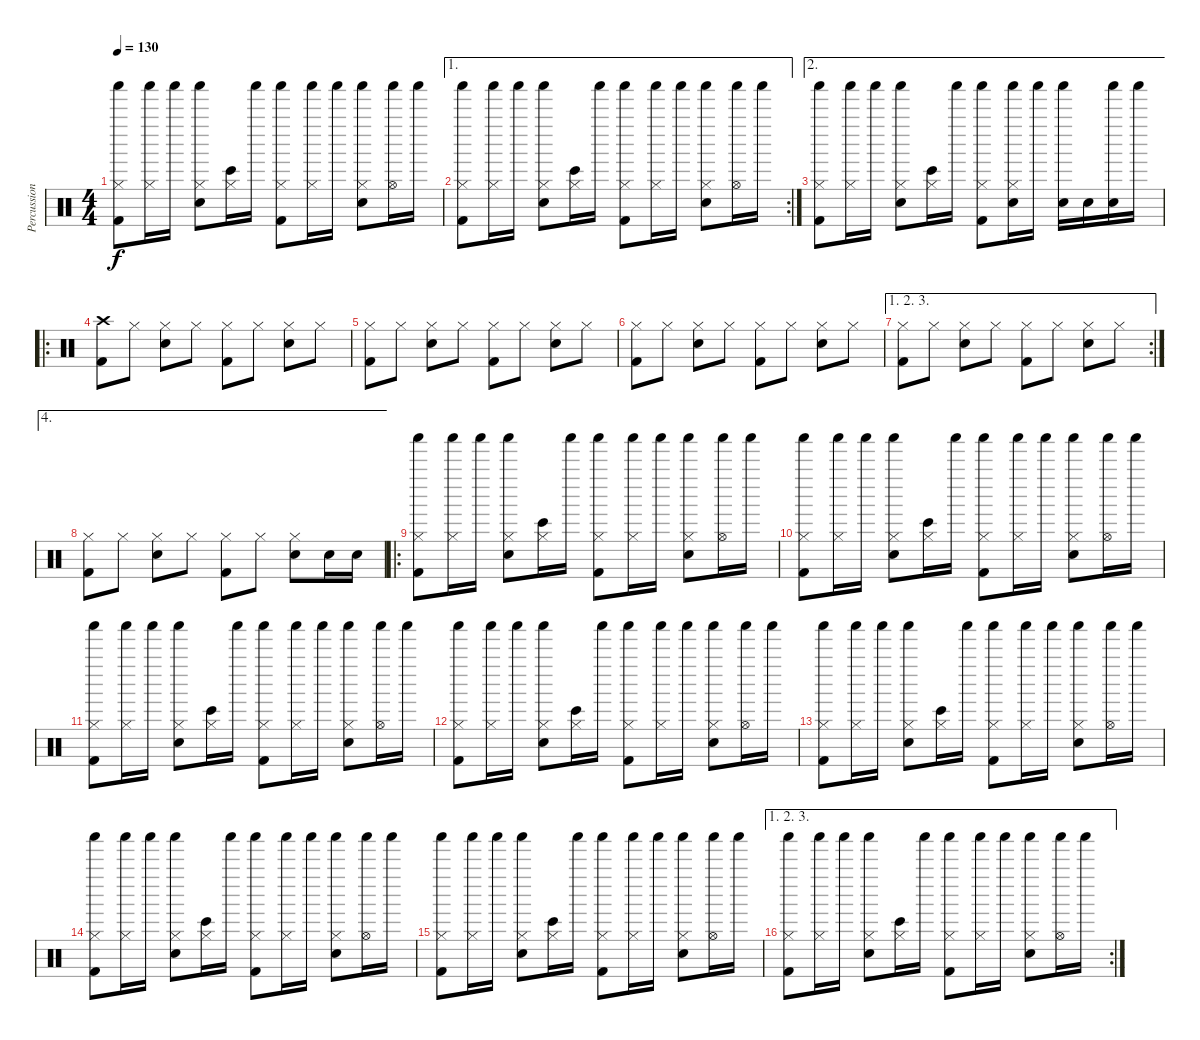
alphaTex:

\track ("Percussion" "Percussion") {instrument percussion}
\staff {score}
\articulation defaults
\ts (4 4)
\tempo 130
\clef neutral
\ks c
("Hi-Hat (closed)" "Kick (hit) 2" "Shaker (hit)").8{dy f} ("Hi-Hat (closed)" "Shaker (hit)").16 "Shaker (hit)".16 ("Hi-Hat (closed)" "Electric Snare (hit)" "Shaker (hit)").8 ("Hi-Hat (closed)" "Bongo High (hit)").16 "Shaker (hit)".16 ("Hi-Hat (closed)" "Kick (hit) 2" "Shaker (hit)").8 ("Hi-Hat (closed)" "Shaker (hit)").16 "Shaker (hit)".16 ("Hi-Hat (closed)" "Electric Snare (hit)" "Shaker (hit)").8 ("Hi-Hat (open)" "Shaker (hit)").16 "Shaker (hit)".16 |
\ae 1
\rc 2
("Hi-Hat (closed)" "Kick (hit) 2" "Shaker (hit)").8 ("Hi-Hat (closed)" "Shaker (hit)").16 "Shaker (hit)".16 ("Hi-Hat (closed)" "Electric Snare (hit)" "Shaker (hit)").8 ("Hi-Hat (closed)" "Bongo High (hit)").16 "Shaker (hit)".16 ("Hi-Hat (closed)" "Kick (hit) 2" "Shaker (hit)").8 ("Hi-Hat (closed)" "Shaker (hit)").16 "Shaker (hit)".16 ("Hi-Hat (closed)" "Electric Snare (hit)" "Shaker (hit)").8 ("Hi-Hat (open)" "Shaker (hit)").16 "Shaker (hit)".16 |
\ae 2
("Hi-Hat (closed)" "Kick (hit) 2" "Shaker (hit)").8 ("Hi-Hat (closed)" "Shaker (hit)").16 "Shaker (hit)".16 ("Hi-Hat (closed)" "Electric Snare (hit)" "Shaker (hit)").8 ("Hi-Hat (closed)" "Bongo High (hit)").16 "Shaker (hit)".16 ("Hi-Hat (closed)" "Kick (hit) 2" "Shaker (hit)").8 ("Hi-Hat (closed)" "Electric Snare (hit)" "Shaker (hit)").16 "Shaker (hit)".16 ("Electric Snare (hit)" "Shaker (hit)").16 "Electric Snare (hit)".16 ("Electric Snare (hit)" "Shaker (hit)").16 "Shaker (hit)".16 |
\ro
("Crash high (hit)" "Kick (hit) 2").8 "Hi-Hat (closed)".8 ("Hi-Hat (closed)" "Electric Snare (hit)").8 "Hi-Hat (closed)".8 ("Hi-Hat (closed)" "Kick (hit) 2").8 "Hi-Hat (closed)".8 ("Hi-Hat (closed)" "Electric Snare (hit)").8 "Hi-Hat (closed)".8 |
("Hi-Hat (closed)" "Kick (hit) 2").8 "Hi-Hat (closed)".8 ("Hi-Hat (closed)" "Electric Snare (hit)").8 "Hi-Hat (closed)".8 ("Hi-Hat (closed)" "Kick (hit) 2").8 "Hi-Hat (closed)".8 ("Hi-Hat (closed)" "Electric Snare (hit)").8 "Hi-Hat (closed)".8 |
("Hi-Hat (closed)" "Kick (hit) 2").8 "Hi-Hat (closed)".8 ("Hi-Hat (closed)" "Electric Snare (hit)").8 "Hi-Hat (closed)".8 ("Hi-Hat (closed)" "Kick (hit) 2").8 "Hi-Hat (closed)".8 ("Hi-Hat (closed)" "Electric Snare (hit)").8 "Hi-Hat (closed)".8 |
\ae (1 2 3)
\rc 2
("Hi-Hat (closed)" "Kick (hit) 2").8 "Hi-Hat (closed)".8 ("Hi-Hat (closed)" "Electric Snare (hit)").8 "Hi-Hat (closed)".8 ("Hi-Hat (closed)" "Kick (hit) 2").8 "Hi-Hat (closed)".8 ("Hi-Hat (closed)" "Electric Snare (hit)").8 "Hi-Hat (closed)".8 |
\ae 4
("Hi-Hat (closed)" "Kick (hit) 2").8 "Hi-Hat (closed)".8 ("Hi-Hat (closed)" "Electric Snare (hit)").8 "Hi-Hat (closed)".8 ("Hi-Hat (closed)" "Kick (hit) 2").8 "Hi-Hat (closed)".8 ("Hi-Hat (closed)" "Electric Snare (hit)").8 "Electric Snare (hit)".16 "Electric Snare (hit)".16 |
\ro
("Hi-Hat (closed)" "Kick (hit) 2" "Shaker (hit)").8 ("Hi-Hat (closed)" "Shaker (hit)").16 "Shaker (hit)".16 ("Hi-Hat (closed)" "Electric Snare (hit)" "Shaker (hit)").8 ("Hi-Hat (closed)" "Bongo High (hit)").16 "Shaker (hit)".16 ("Hi-Hat (closed)" "Kick (hit) 2" "Shaker (hit)").8 ("Hi-Hat (closed)" "Shaker (hit)").16 "Shaker (hit)".16 ("Hi-Hat (closed)" "Electric Snare (hit)" "Shaker (hit)").8 ("Hi-Hat (open)" "Shaker (hit)").16 "Shaker (hit)".16 |
("Hi-Hat (closed)" "Kick (hit) 2" "Shaker (hit)").8 ("Hi-Hat (closed)" "Shaker (hit)").16 "Shaker (hit)".16 ("Hi-Hat (closed)" "Electric Snare (hit)" "Shaker (hit)").8 ("Hi-Hat (closed)" "Bongo High (hit)").16 "Shaker (hit)".16 ("Hi-Hat (closed)" "Kick (hit) 2" "Shaker (hit)").8 ("Hi-Hat (closed)" "Shaker (hit)").16 "Shaker (hit)".16 ("Hi-Hat (closed)" "Electric Snare (hit)" "Shaker (hit)").8 ("Hi-Hat (open)" "Shaker (hit)").16 "Shaker (hit)".16 |
("Hi-Hat (closed)" "Kick (hit) 2" "Shaker (hit)").8 ("Hi-Hat (closed)" "Shaker (hit)").16 "Shaker (hit)".16 ("Hi-Hat (closed)" "Electric Snare (hit)" "Shaker (hit)").8 ("Hi-Hat (closed)" "Bongo High (hit)").16 "Shaker (hit)".16 ("Hi-Hat (closed)" "Kick (hit) 2" "Shaker (hit)").8 ("Hi-Hat (closed)" "Shaker (hit)").16 "Shaker (hit)".16 ("Hi-Hat (closed)" "Electric Snare (hit)" "Shaker (hit)").8 ("Hi-Hat (open)" "Shaker (hit)").16 "Shaker (hit)".16 |
("Hi-Hat (closed)" "Kick (hit) 2" "Shaker (hit)").8 ("Hi-Hat (closed)" "Shaker (hit)").16 "Shaker (hit)".16 ("Hi-Hat (closed)" "Electric Snare (hit)" "Shaker (hit)").8 ("Hi-Hat (closed)" "Bongo High (hit)").16 "Shaker (hit)".16 ("Hi-Hat (closed)" "Kick (hit) 2" "Shaker (hit)").8 ("Hi-Hat (closed)" "Shaker (hit)").16 "Shaker (hit)".16 ("Hi-Hat (closed)" "Electric Snare (hit)" "Shaker (hit)").8 ("Hi-Hat (open)" "Shaker (hit)").16 "Shaker (hit)".16 |
("Hi-Hat (closed)" "Kick (hit) 2" "Shaker (hit)").8 ("Hi-Hat (closed)" "Shaker (hit)").16 "Shaker (hit)".16 ("Hi-Hat (closed)" "Electric Snare (hit)" "Shaker (hit)").8 ("Hi-Hat (closed)" "Bongo High (hit)").16 "Shaker (hit)".16 ("Hi-Hat (closed)" "Kick (hit) 2" "Shaker (hit)").8 ("Hi-Hat (closed)" "Shaker (hit)").16 "Shaker (hit)".16 ("Hi-Hat (closed)" "Electric Snare (hit)" "Shaker (hit)").8 ("Hi-Hat (open)" "Shaker (hit)").16 "Shaker (hit)".16 |
("Hi-Hat (closed)" "Kick (hit) 2" "Shaker (hit)").8 ("Hi-Hat (closed)" "Shaker (hit)").16 "Shaker (hit)".16 ("Hi-Hat (closed)" "Electric Snare (hit)" "Shaker (hit)").8 ("Hi-Hat (closed)" "Bongo High (hit)").16 "Shaker (hit)".16 ("Hi-Hat (closed)" "Kick (hit) 2" "Shaker (hit)").8 ("Hi-Hat (closed)" "Shaker (hit)").16 "Shaker (hit)".16 ("Hi-Hat (closed)" "Electric Snare (hit)" "Shaker (hit)").8 ("Hi-Hat (open)" "Shaker (hit)").16 "Shaker (hit)".16 |
("Hi-Hat (closed)" "Kick (hit) 2" "Shaker (hit)").8 ("Hi-Hat (closed)" "Shaker (hit)").16 "Shaker (hit)".16 ("Hi-Hat (closed)" "Electric Snare (hit)" "Shaker (hit)").8 ("Hi-Hat (closed)" "Bongo High (hit)").16 "Shaker (hit)".16 ("Hi-Hat (closed)" "Kick (hit) 2" "Shaker (hit)").8 ("Hi-Hat (closed)" "Shaker (hit)").16 "Shaker (hit)".16 ("Hi-Hat (closed)" "Electric Snare (hit)" "Shaker (hit)").8 ("Hi-Hat (open)" "Shaker (hit)").16 "Shaker (hit)".16 |
\ae (1 2 3)
\rc 2
("Hi-Hat (closed)" "Kick (hit) 2" "Shaker (hit)").8 ("Hi-Hat (closed)" "Shaker (hit)").16 "Shaker (hit)".16 ("Hi-Hat (closed)" "Electric Snare (hit)" "Shaker (hit)").8 ("Hi-Hat (closed)" "Bongo High (hit)").16 "Shaker (hit)".16 ("Hi-Hat (closed)" "Kick (hit) 2" "Shaker (hit)").8 ("Hi-Hat (closed)" "Shaker (hit)").16 "Shaker (hit)".16 ("Hi-Hat (closed)" "Electric Snare (hit)" "Shaker (hit)").8 ("Hi-Hat (open)" "Shaker (hit)").16 "Shaker (hit)".16
